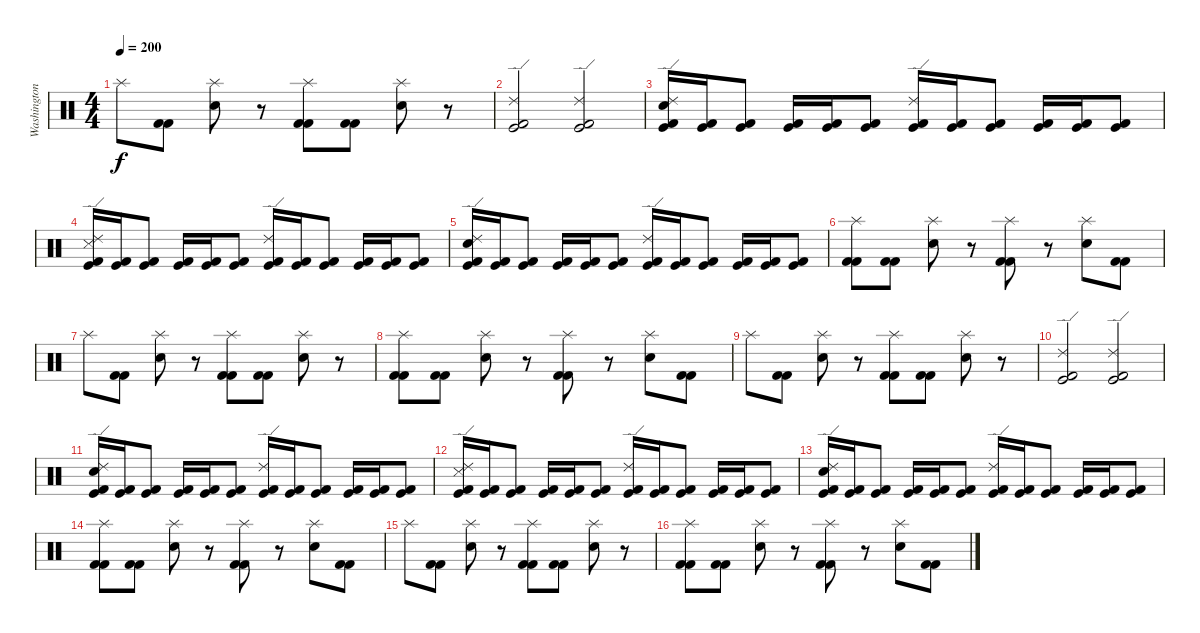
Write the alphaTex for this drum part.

\track ("Washington" "Washington") {solo instrument percussion}
\staff {score}
\articulation defaults
\ts (4 4)
\tempo 200
\clef neutral
\ks c "Splash (hit)".8{dy f}
("Kick (hit) 2" "Kick (hit) 2").8 ("Splash (hit)" "Electric Snare (hit)").8 r.8 ("Splash (hit)" "Kick (hit) 2" "Kick (hit) 2").8 ("Kick (hit) 2" "Kick (hit) 2").8 ("Splash (hit)" "Electric Snare (hit)").8 r.8 |
("Ride (edge) 2" "Kick (hit) 2" "Kick (hit)").2 ("Ride (edge) 2" "Kick (hit) 2" "Kick (hit)").2 |
("Ride (edge) 2" "Snare (hit) 2" "Kick (hit) 2" "Kick (hit)").16 ("Kick (hit) 2" "Kick (hit)").16 ("Kick (hit) 2" "Kick (hit)").8 ("Kick (hit) 2" "Kick (hit)").16 ("Kick (hit) 2" "Kick (hit)").16 ("Kick (hit) 2" "Kick (hit)").8 ("Ride (edge) 2" "Kick (hit) 2" "Kick (hit)").16 ("Kick (hit) 2" "Kick (hit)").16 ("Kick (hit) 2" "Kick (hit)").8 ("Kick (hit) 2" "Kick (hit)").16 ("Kick (hit) 2" "Kick (hit)").16 ("Kick (hit) 2" "Kick (hit)").8 |
("Ride (edge) 2" "Snare (side stick) 3" "Kick (hit) 2" "Kick (hit)").16 ("Kick (hit) 2" "Kick (hit)").16 ("Kick (hit) 2" "Kick (hit)").8 ("Kick (hit) 2" "Kick (hit)").16 ("Kick (hit) 2" "Kick (hit)").16 ("Kick (hit) 2" "Kick (hit)").8 ("Ride (edge) 2" "Kick (hit) 2" "Kick (hit)").16 ("Kick (hit) 2" "Kick (hit)").16 ("Kick (hit) 2" "Kick (hit)").8 ("Kick (hit) 2" "Kick (hit)").16 ("Kick (hit) 2" "Kick (hit)").16 ("Kick (hit) 2" "Kick (hit)").8 |
("Ride (edge) 2" "Snare (hit) 2" "Kick (hit) 2" "Kick (hit)").16 ("Kick (hit) 2" "Kick (hit)").16 ("Kick (hit) 2" "Kick (hit)").8 ("Kick (hit) 2" "Kick (hit)").16 ("Kick (hit) 2" "Kick (hit)").16 ("Kick (hit) 2" "Kick (hit)").8 ("Ride (edge) 2" "Kick (hit) 2" "Kick (hit)").16 ("Kick (hit) 2" "Kick (hit)").16 ("Kick (hit) 2" "Kick (hit)").8 ("Kick (hit) 2" "Kick (hit)").16 ("Kick (hit) 2" "Kick (hit)").16 ("Kick (hit) 2" "Kick (hit)").8 |
("Splash (hit)" "Kick (hit) 2" "Kick (hit) 2").8 ("Kick (hit) 2" "Kick (hit) 2").8 ("Splash (hit)" "Electric Snare (hit)").8 r.8 ("Splash (hit)" "Kick (hit) 2" "Kick (hit) 2").8 r.8 ("Splash (hit)" "Electric Snare (hit)").8 ("Kick (hit) 2" "Kick (hit) 2").8 |
"Splash (hit)".8 ("Kick (hit) 2" "Kick (hit) 2").8 ("Splash (hit)" "Electric Snare (hit)").8 r.8 ("Splash (hit)" "Kick (hit) 2" "Kick (hit) 2").8 ("Kick (hit) 2" "Kick (hit) 2").8 ("Splash (hit)" "Electric Snare (hit)").8 r.8 |
("Splash (hit)" "Kick (hit) 2" "Kick (hit) 2").8 ("Kick (hit) 2" "Kick (hit) 2").8 ("Splash (hit)" "Electric Snare (hit)").8 r.8 ("Splash (hit)" "Kick (hit) 2" "Kick (hit) 2").8 r.8 ("Splash (hit)" "Electric Snare (hit)").8 ("Kick (hit) 2" "Kick (hit) 2").8 |
"Splash (hit)".8 ("Kick (hit) 2" "Kick (hit) 2").8 ("Splash (hit)" "Electric Snare (hit)").8 r.8 ("Splash (hit)" "Kick (hit) 2" "Kick (hit) 2").8 ("Kick (hit) 2" "Kick (hit) 2").8 ("Splash (hit)" "Electric Snare (hit)").8 r.8 |
("Ride (edge) 2" "Kick (hit) 2" "Kick (hit)").2 ("Ride (edge) 2" "Kick (hit) 2" "Kick (hit)").2 |
("Ride (edge) 2" "Snare (hit) 2" "Kick (hit) 2" "Kick (hit)").16 ("Kick (hit) 2" "Kick (hit)").16 ("Kick (hit) 2" "Kick (hit)").8 ("Kick (hit) 2" "Kick (hit)").16 ("Kick (hit) 2" "Kick (hit)").16 ("Kick (hit) 2" "Kick (hit)").8 ("Ride (edge) 2" "Kick (hit) 2" "Kick (hit)").16 ("Kick (hit) 2" "Kick (hit)").16 ("Kick (hit) 2" "Kick (hit)").8 ("Kick (hit) 2" "Kick (hit)").16 ("Kick (hit) 2" "Kick (hit)").16 ("Kick (hit) 2" "Kick (hit)").8 |
("Ride (edge) 2" "Snare (side stick) 3" "Kick (hit) 2" "Kick (hit)").16 ("Kick (hit) 2" "Kick (hit)").16 ("Kick (hit) 2" "Kick (hit)").8 ("Kick (hit) 2" "Kick (hit)").16 ("Kick (hit) 2" "Kick (hit)").16 ("Kick (hit) 2" "Kick (hit)").8 ("Ride (edge) 2" "Kick (hit) 2" "Kick (hit)").16 ("Kick (hit) 2" "Kick (hit)").16 ("Kick (hit) 2" "Kick (hit)").8 ("Kick (hit) 2" "Kick (hit)").16 ("Kick (hit) 2" "Kick (hit)").16 ("Kick (hit) 2" "Kick (hit)").8 |
("Ride (edge) 2" "Snare (hit) 2" "Kick (hit) 2" "Kick (hit)").16 ("Kick (hit) 2" "Kick (hit)").16 ("Kick (hit) 2" "Kick (hit)").8 ("Kick (hit) 2" "Kick (hit)").16 ("Kick (hit) 2" "Kick (hit)").16 ("Kick (hit) 2" "Kick (hit)").8 ("Ride (edge) 2" "Kick (hit) 2" "Kick (hit)").16 ("Kick (hit) 2" "Kick (hit)").16 ("Kick (hit) 2" "Kick (hit)").8 ("Kick (hit) 2" "Kick (hit)").16 ("Kick (hit) 2" "Kick (hit)").16 ("Kick (hit) 2" "Kick (hit)").8 |
("Splash (hit)" "Kick (hit) 2" "Kick (hit) 2").8 ("Kick (hit) 2" "Kick (hit) 2").8 ("Splash (hit)" "Electric Snare (hit)").8 r.8 ("Splash (hit)" "Kick (hit) 2" "Kick (hit) 2").8 r.8 ("Splash (hit)" "Electric Snare (hit)").8 ("Kick (hit) 2" "Kick (hit) 2").8 |
"Splash (hit)".8 ("Kick (hit) 2" "Kick (hit) 2").8 ("Splash (hit)" "Electric Snare (hit)").8 r.8 ("Splash (hit)" "Kick (hit) 2" "Kick (hit) 2").8 ("Kick (hit) 2" "Kick (hit) 2").8 ("Splash (hit)" "Electric Snare (hit)").8 r.8 |
("Splash (hit)" "Kick (hit) 2" "Kick (hit) 2").8 ("Kick (hit) 2" "Kick (hit) 2").8 ("Splash (hit)" "Electric Snare (hit)").8 r.8 ("Splash (hit)" "Kick (hit) 2" "Kick (hit) 2").8 r.8 ("Splash (hit)" "Electric Snare (hit)").8 ("Kick (hit) 2" "Kick (hit) 2").8
